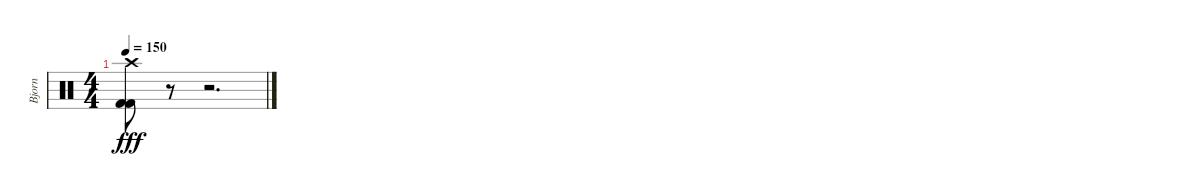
\track ("Bjorn" "Bjorn") {instrument percussion}
\staff {score}
\articulation defaults
\ts (4 4)
\tempo 150
\clef neutral
\ks c
("Kick (hit) 2" "Kick (hit) 2" "Crash high (hit)").8{dy fff} r.8 r.2{d}
